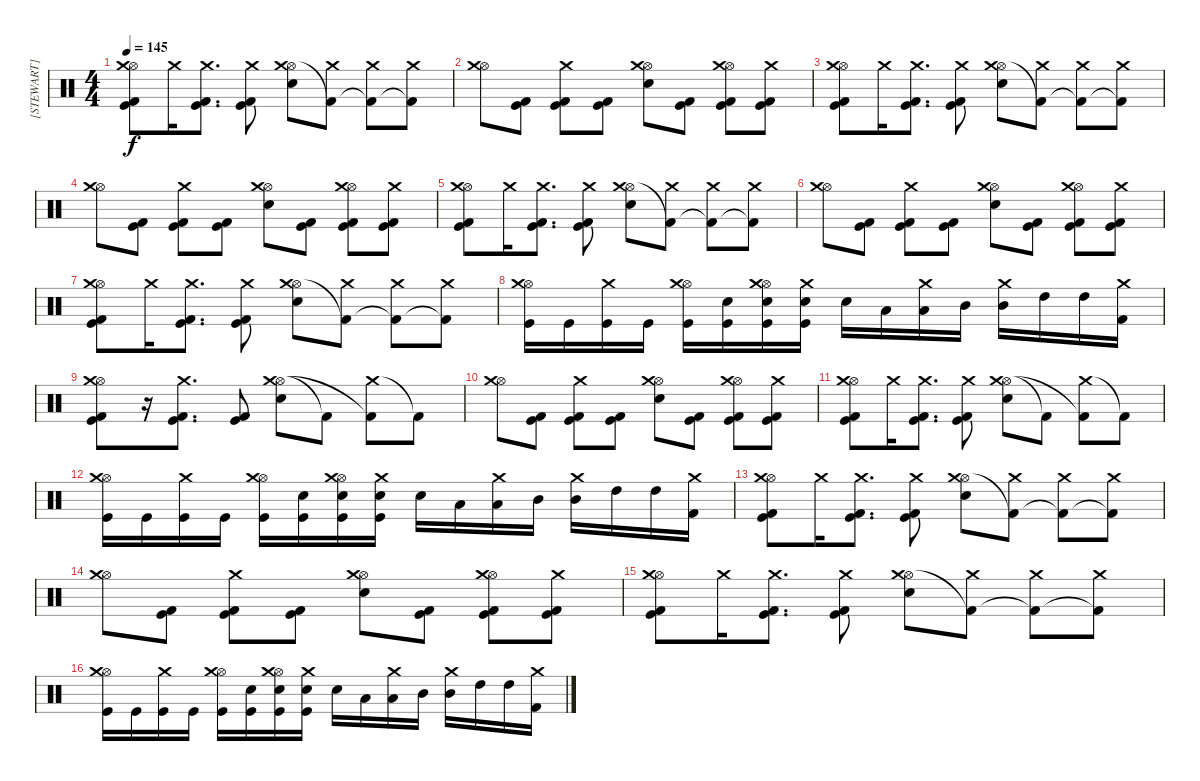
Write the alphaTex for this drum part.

\track ("[STEWART]" "[STEWART]") {instrument percussion}
\staff {score}
\articulation defaults
\ts (4 4)
\tempo 145
\clef neutral
\ks c
("Hi-Hat (open)" "Crash medium (hit)" "Kick (hit) 2" "Kick (hit)").8{dy f} "Crash medium (hit)".16 ("Crash medium (hit)" "Kick (hit) 2" "Kick (hit)").8{d} ("Crash medium (hit)" "Kick (hit) 2" "Kick (hit)").8 ("Hi-Hat (open)" "Crash medium (hit)" "Electric Snare (hit)").8 ("Crash medium (hit)" "Kick (hit) 2"{t}).8 ("Crash medium (hit)" "Kick (hit) 2"{t}).8 ("Crash medium (hit)" "Kick (hit) 2"{t}).8 |
("Hi-Hat (open)" "Crash medium (hit)").8 ("Kick (hit) 2" "Kick (hit)").8 ("Crash medium (hit)" "Kick (hit) 2" "Kick (hit)").8 ("Kick (hit) 2" "Kick (hit)").8 ("Hi-Hat (open)" "Crash medium (hit)" "Electric Snare (hit)").8 ("Kick (hit) 2" "Kick (hit)").8 ("Hi-Hat (open)" "Crash medium (hit)" "Kick (hit) 2" "Kick (hit)").8 ("Crash medium (hit)" "Kick (hit) 2" "Kick (hit)").8 |
("Hi-Hat (open)" "Crash medium (hit)" "Kick (hit) 2" "Kick (hit)").8 "Crash medium (hit)".16 ("Crash medium (hit)" "Kick (hit) 2" "Kick (hit)").8{d} ("Crash medium (hit)" "Kick (hit) 2" "Kick (hit)").8 ("Hi-Hat (open)" "Crash medium (hit)" "Electric Snare (hit)").8 ("Crash medium (hit)" "Kick (hit) 2"{t}).8 ("Crash medium (hit)" "Kick (hit) 2"{t}).8 ("Crash medium (hit)" "Kick (hit) 2"{t}).8 |
("Hi-Hat (open)" "Crash medium (hit)").8 ("Kick (hit) 2" "Kick (hit)").8 ("Crash medium (hit)" "Kick (hit) 2" "Kick (hit)").8 ("Kick (hit) 2" "Kick (hit)").8 ("Hi-Hat (open)" "Crash medium (hit)" "Electric Snare (hit)").8 ("Kick (hit) 2" "Kick (hit)").8 ("Hi-Hat (open)" "Crash medium (hit)" "Kick (hit) 2" "Kick (hit)").8 ("Crash medium (hit)" "Kick (hit) 2" "Kick (hit)").8 |
("Hi-Hat (open)" "Crash medium (hit)" "Kick (hit) 2" "Kick (hit)").8 "Crash medium (hit)".16 ("Crash medium (hit)" "Kick (hit) 2" "Kick (hit)").8{d} ("Crash medium (hit)" "Kick (hit) 2" "Kick (hit)").8 ("Hi-Hat (open)" "Crash medium (hit)" "Electric Snare (hit)").8 ("Crash medium (hit)" "Kick (hit) 2"{t}).8 ("Crash medium (hit)" "Kick (hit) 2"{t}).8 ("Crash medium (hit)" "Kick (hit) 2"{t}).8 |
("Hi-Hat (open)" "Crash medium (hit)").8 ("Kick (hit) 2" "Kick (hit)").8 ("Crash medium (hit)" "Kick (hit) 2" "Kick (hit)").8 ("Kick (hit) 2" "Kick (hit)").8 ("Hi-Hat (open)" "Crash medium (hit)" "Electric Snare (hit)").8 ("Kick (hit) 2" "Kick (hit)").8 ("Hi-Hat (open)" "Crash medium (hit)" "Kick (hit) 2" "Kick (hit)").8 ("Crash medium (hit)" "Kick (hit) 2" "Kick (hit)").8 |
("Hi-Hat (open)" "Crash medium (hit)" "Kick (hit) 2" "Kick (hit)").8 "Crash medium (hit)".16 ("Crash medium (hit)" "Kick (hit) 2" "Kick (hit)").8{d} ("Crash medium (hit)" "Kick (hit) 2" "Kick (hit)").8 ("Hi-Hat (open)" "Crash medium (hit)" "Electric Snare (hit)").8 ("Crash medium (hit)" "Kick (hit) 2"{t}).8 ("Crash medium (hit)" "Kick (hit) 2"{t}).8 ("Crash medium (hit)" "Kick (hit) 2"{t}).8 |
("Hi-Hat (open)" "Crash medium (hit)" "Kick (hit)").16 "Kick (hit)".16 ("Crash medium (hit)" "Kick (hit)").16 "Kick (hit)".16 ("Hi-Hat (open)" "Crash medium (hit)" "Kick (hit)").16 ("Electric Snare (hit)" "Kick (hit)").16 ("Hi-Hat (open)" "Crash medium (hit)" "Electric Snare (hit)" "Kick (hit)").16 ("Crash medium (hit)" "Electric Snare (hit)" "Kick (hit)").16 "Electric Snare (hit)".16 "Low Tom (hit)".16 ("Crash medium (hit)" "Low Tom (hit)").16 "Mid Tom (hit)".16 ("Crash medium (hit)" "Mid Tom (hit)").16 "High Tom (hit)".16 "High Tom (hit)".16 ("Crash medium (hit)" "Kick (hit) 2").16 |
("Hi-Hat (open)" "Crash medium (hit)" "Kick (hit) 2" "Kick (hit)").8 r.16 ("Crash medium (hit)" "Kick (hit) 2" "Kick (hit)").8{d} ("Kick (hit) 2" "Kick (hit)").8 ("Hi-Hat (open)" "Crash medium (hit)" "Electric Snare (hit)").8 "Kick (hit) 2"{t}.8 ("Crash medium (hit)" "Kick (hit) 2"{t}).8 "Kick (hit) 2"{t}.8 |
("Hi-Hat (open)" "Crash medium (hit)").8 ("Kick (hit) 2" "Kick (hit)").8 ("Crash medium (hit)" "Kick (hit) 2" "Kick (hit)").8 ("Kick (hit) 2" "Kick (hit)").8 ("Hi-Hat (open)" "Crash medium (hit)" "Electric Snare (hit)").8 ("Kick (hit) 2" "Kick (hit)").8 ("Hi-Hat (open)" "Crash medium (hit)" "Kick (hit) 2" "Kick (hit)").8 ("Crash medium (hit)" "Kick (hit) 2" "Kick (hit)").8 |
("Hi-Hat (open)" "Crash medium (hit)" "Kick (hit) 2" "Kick (hit)").8 "Crash medium (hit)".16 ("Crash medium (hit)" "Kick (hit) 2" "Kick (hit)").8{d} ("Crash medium (hit)" "Kick (hit) 2" "Kick (hit)").8 ("Hi-Hat (open)" "Crash medium (hit)" "Electric Snare (hit)").8 "Kick (hit) 2"{t}.8 ("Crash medium (hit)" "Kick (hit) 2"{t}).8 "Kick (hit) 2"{t}.8 |
("Hi-Hat (open)" "Crash medium (hit)" "Kick (hit)").16 "Kick (hit)".16 ("Crash medium (hit)" "Kick (hit)").16 "Kick (hit)".16 ("Hi-Hat (open)" "Crash medium (hit)" "Kick (hit)").16 ("Electric Snare (hit)" "Kick (hit)").16 ("Hi-Hat (open)" "Crash medium (hit)" "Electric Snare (hit)" "Kick (hit)").16 ("Crash medium (hit)" "Electric Snare (hit)" "Kick (hit)").16 "Electric Snare (hit)".16 "Low Tom (hit)".16 ("Crash medium (hit)" "Low Tom (hit)").16 "Mid Tom (hit)".16 ("Crash medium (hit)" "Mid Tom (hit)").16 "High Tom (hit)".16 "High Tom (hit)".16 ("Crash medium (hit)" "Kick (hit) 2").16 |
("Hi-Hat (open)" "Crash medium (hit)" "Kick (hit) 2" "Kick (hit)").8 "Crash medium (hit)".16 ("Crash medium (hit)" "Kick (hit) 2" "Kick (hit)").8{d} ("Crash medium (hit)" "Kick (hit) 2" "Kick (hit)").8 ("Hi-Hat (open)" "Crash medium (hit)" "Electric Snare (hit)").8 ("Crash medium (hit)" "Kick (hit) 2"{t}).8 ("Crash medium (hit)" "Kick (hit) 2"{t}).8 ("Crash medium (hit)" "Kick (hit) 2"{t}).8 |
("Hi-Hat (open)" "Crash medium (hit)").8 ("Kick (hit) 2" "Kick (hit)").8 ("Crash medium (hit)" "Kick (hit) 2" "Kick (hit)").8 ("Kick (hit) 2" "Kick (hit)").8 ("Hi-Hat (open)" "Crash medium (hit)" "Electric Snare (hit)").8 ("Kick (hit) 2" "Kick (hit)").8 ("Hi-Hat (open)" "Crash medium (hit)" "Kick (hit) 2" "Kick (hit)").8 ("Crash medium (hit)" "Kick (hit) 2" "Kick (hit)").8 |
("Hi-Hat (open)" "Crash medium (hit)" "Kick (hit) 2" "Kick (hit)").8 "Crash medium (hit)".16 ("Crash medium (hit)" "Kick (hit) 2" "Kick (hit)").8{d} ("Crash medium (hit)" "Kick (hit) 2" "Kick (hit)").8 ("Hi-Hat (open)" "Crash medium (hit)" "Electric Snare (hit)").8 ("Crash medium (hit)" "Kick (hit) 2"{t}).8 ("Crash medium (hit)" "Kick (hit) 2"{t}).8 ("Crash medium (hit)" "Kick (hit) 2"{t}).8 |
("Hi-Hat (open)" "Crash medium (hit)" "Kick (hit)").16 "Kick (hit)".16 ("Crash medium (hit)" "Kick (hit)").16 "Kick (hit)".16 ("Hi-Hat (open)" "Crash medium (hit)" "Kick (hit)").16 ("Electric Snare (hit)" "Kick (hit)").16 ("Hi-Hat (open)" "Crash medium (hit)" "Electric Snare (hit)" "Kick (hit)").16 ("Crash medium (hit)" "Electric Snare (hit)" "Kick (hit)").16 "Electric Snare (hit)".16 "Low Tom (hit)".16 ("Crash medium (hit)" "Low Tom (hit)").16 "Mid Tom (hit)".16 ("Crash medium (hit)" "Mid Tom (hit)").16 "High Tom (hit)".16 "High Tom (hit)".16 ("Crash medium (hit)" "Kick (hit) 2").16
